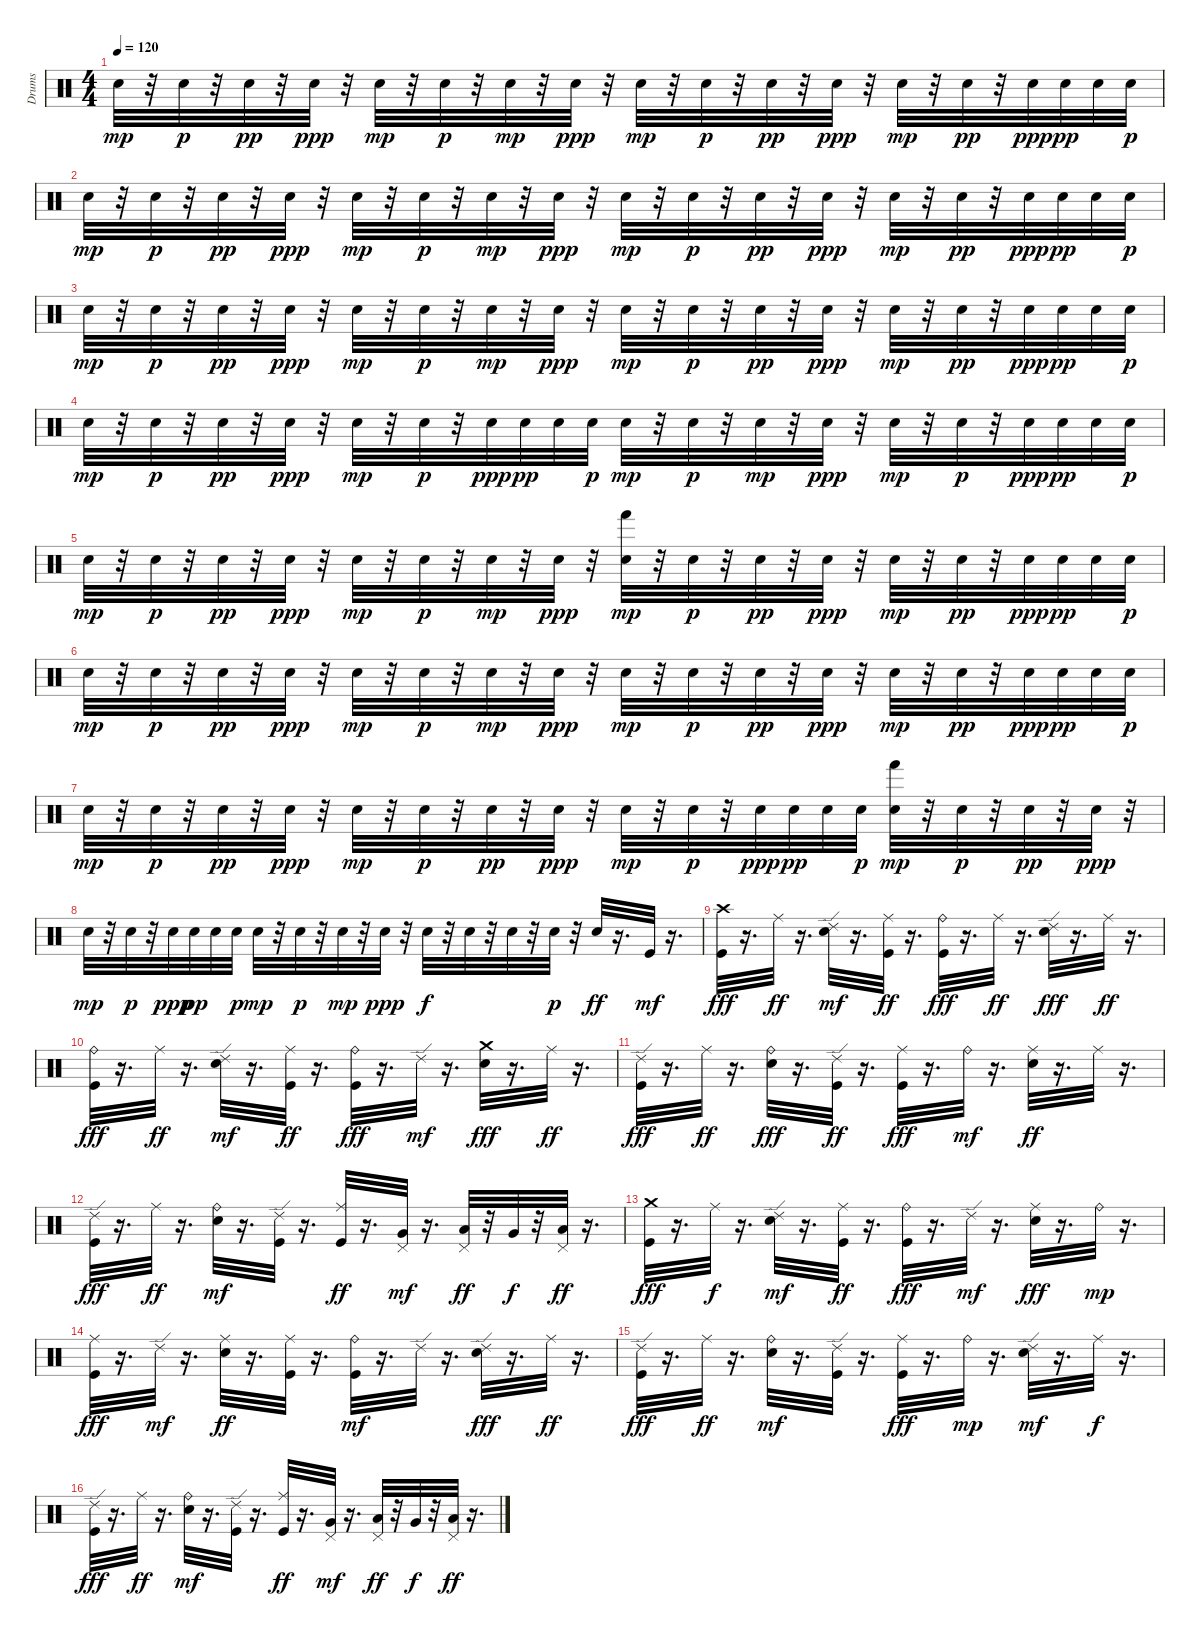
\track ("Drums" "Drums") {instrument percussion}
\staff {score}
\articulation defaults
\ts (4 4)
\tempo 120
\clef neutral
\ks c "Snare (hit) 2".32{dy mp}
r.32 "Electric Snare (hit)".32{dy p} r.32 "Snare (hit) 2".32{dy pp} r.32 "Electric Snare (hit)".32{dy ppp} r.32 "Snare (hit) 2".32{dy mp} r.32 "Electric Snare (hit)".32{dy p} r.32 "Snare (hit) 2".32{dy mp} r.32 "Electric Snare (hit)".32{dy ppp} r.32 "Snare (hit) 2".32{dy mp} r.32 "Electric Snare (hit)".32{dy p} r.32 "Snare (hit) 2".32{dy pp} r.32 "Electric Snare (hit)".32{dy ppp} r.32 "Snare (hit) 2".32{dy mp} r.32 "Electric Snare (hit)".32{dy pp} r.32 "Electric Snare (hit)".32{dy ppp} "Electric Snare (hit)".32{dy pp} "Electric Snare (hit)".32 "Electric Snare (hit)".32{dy p} |
"Snare (hit) 2".32{dy mp} r.32 "Electric Snare (hit)".32{dy p} r.32 "Snare (hit) 2".32{dy pp} r.32 "Electric Snare (hit)".32{dy ppp} r.32 "Snare (hit) 2".32{dy mp} r.32 "Electric Snare (hit)".32{dy p} r.32 "Snare (hit) 2".32{dy mp} r.32 "Electric Snare (hit)".32{dy ppp} r.32 "Snare (hit) 2".32{dy mp} r.32 "Electric Snare (hit)".32{dy p} r.32 "Snare (hit) 2".32{dy pp} r.32 "Electric Snare (hit)".32{dy ppp} r.32 "Snare (hit) 2".32{dy mp} r.32 "Electric Snare (hit)".32{dy pp} r.32 "Electric Snare (hit)".32{dy ppp} "Electric Snare (hit)".32{dy pp} "Electric Snare (hit)".32 "Electric Snare (hit)".32{dy p} |
"Snare (hit) 2".32{dy mp} r.32 "Electric Snare (hit)".32{dy p} r.32 "Snare (hit) 2".32{dy pp} r.32 "Electric Snare (hit)".32{dy ppp} r.32 "Snare (hit) 2".32{dy mp} r.32 "Electric Snare (hit)".32{dy p} r.32 "Snare (hit) 2".32{dy mp} r.32 "Electric Snare (hit)".32{dy ppp} r.32 "Snare (hit) 2".32{dy mp} r.32 "Electric Snare (hit)".32{dy p} r.32 "Snare (hit) 2".32{dy pp} r.32 "Electric Snare (hit)".32{dy ppp} r.32 "Snare (hit) 2".32{dy mp} r.32 "Electric Snare (hit)".32{dy pp} r.32 "Electric Snare (hit)".32{dy ppp} "Electric Snare (hit)".32{dy pp} "Electric Snare (hit)".32 "Electric Snare (hit)".32{dy p} |
"Snare (hit) 2".32{dy mp} r.32 "Electric Snare (hit)".32{dy p} r.32 "Snare (hit) 2".32{dy pp} r.32 "Electric Snare (hit)".32{dy ppp} r.32 "Snare (hit) 2".32{dy mp} r.32 "Electric Snare (hit)".32{dy p} r.32 "Electric Snare (hit)".32{dy ppp} "Electric Snare (hit)".32{dy pp} "Electric Snare (hit)".32 "Electric Snare (hit)".32{dy p} "Snare (hit) 2".32{dy mp} r.32 "Electric Snare (hit)".32{dy p} r.32 "Snare (hit) 2".32{dy mp} r.32 "Electric Snare (hit)".32{dy ppp} r.32 "Snare (hit) 2".32{dy mp} r.32 "Electric Snare (hit)".32{dy p} r.32 "Electric Snare (hit)".32{dy ppp} "Electric Snare (hit)".32{dy pp} "Electric Snare (hit)".32 "Electric Snare (hit)".32{dy p} |
"Snare (hit) 2".32{dy mp} r.32 "Electric Snare (hit)".32{dy p} r.32 "Snare (hit) 2".32{dy pp} r.32 "Electric Snare (hit)".32{dy ppp} r.32 "Snare (hit) 2".32{dy mp} r.32 "Electric Snare (hit)".32{dy p} r.32 "Snare (hit) 2".32{dy mp} r.32 "Electric Snare (hit)".32{dy ppp} r.32 ("Snare (hit) 2" "Hand (hit)").32{dy mp} r.32 "Electric Snare (hit)".32{dy p} r.32 "Snare (hit) 2".32{dy pp} r.32 "Electric Snare (hit)".32{dy ppp} r.32 "Snare (hit) 2".32{dy mp} r.32 "Electric Snare (hit)".32{dy pp} r.32 "Electric Snare (hit)".32{dy ppp} "Electric Snare (hit)".32{dy pp} "Electric Snare (hit)".32 "Electric Snare (hit)".32{dy p} |
"Snare (hit) 2".32{dy mp} r.32 "Electric Snare (hit)".32{dy p} r.32 "Snare (hit) 2".32{dy pp} r.32 "Electric Snare (hit)".32{dy ppp} r.32 "Snare (hit) 2".32{dy mp} r.32 "Electric Snare (hit)".32{dy p} r.32 "Snare (hit) 2".32{dy mp} r.32 "Electric Snare (hit)".32{dy ppp} r.32 "Snare (hit) 2".32{dy mp} r.32 "Electric Snare (hit)".32{dy p} r.32 "Snare (hit) 2".32{dy pp} r.32 "Electric Snare (hit)".32{dy ppp} r.32 "Snare (hit) 2".32{dy mp} r.32 "Electric Snare (hit)".32{dy pp} r.32 "Electric Snare (hit)".32{dy ppp} "Electric Snare (hit)".32{dy pp} "Electric Snare (hit)".32 "Electric Snare (hit)".32{dy p} |
"Snare (hit) 2".32{dy mp} r.32 "Electric Snare (hit)".32{dy p} r.32 "Snare (hit) 2".32{dy pp} r.32 "Electric Snare (hit)".32{dy ppp} r.32 "Snare (hit) 2".32{dy mp} r.32 "Electric Snare (hit)".32{dy p} r.32 "Snare (hit) 2".32{dy pp} r.32 "Electric Snare (hit)".32{dy ppp} r.32 "Snare (hit) 2".32{dy mp} r.32 "Electric Snare (hit)".32{dy p} r.32 "Electric Snare (hit)".32{dy ppp} "Electric Snare (hit)".32{dy pp} "Electric Snare (hit)".32 "Electric Snare (hit)".32{dy p} ("Hand (hit)" "Snare (hit) 2").32{dy mp} r.32 "Electric Snare (hit)".32{dy p} r.32 "Snare (hit) 2".32{dy pp} r.32 "Electric Snare (hit)".32{dy ppp} r.32 |
"Snare (hit) 2".32{dy mp} r.32 "Electric Snare (hit)".32{dy p} r.32 "Electric Snare (hit)".32{dy ppp} "Electric Snare (hit)".32{dy pp} "Electric Snare (hit)".32 "Electric Snare (hit)".32{dy p} "Snare (hit) 2".32{dy mp} r.32 "Electric Snare (hit)".32{dy p} r.32 "Snare (hit) 2".32{dy mp} r.32 "Electric Snare (hit)".32{dy ppp} r.32 "Electric Snare (hit)".32{dy f} r.32 "Electric Snare (hit)".32 r.32 "Electric Snare (hit)".32 r.32 "Electric Snare (hit)".32{dy p} r.32 "Electric Snare (hit)".32{dy ff} r.16{d} "Kick (hit)".32{dy mf} r.16{d} |
("Crash high (hit)" "Kick (hit)").32{dy fff} r.16{d} "Ride (middle)".32{dy ff} r.16{d} ("Electric Snare (hit)" "Ride (edge) 2").32{dy mf} r.16{d} ("Kick (hit)" "Ride (middle)").32{dy ff} r.16{d} ("Ride (bell)" "Kick (hit)").32{dy fff} r.16{d} "Ride (middle)".32{dy ff} r.16{d} ("Ride (edge) 2" "Electric Snare (hit)").32{dy fff} r.16{d} "Ride (middle)".32{dy ff} r.16{d} |
("Ride (bell)" "Kick (hit)").32{dy fff} r.16{d} "Ride (middle)".32{dy ff} r.16{d} ("Electric Snare (hit)" "Ride (edge) 2").32{dy mf} r.16{d} ("Kick (hit)" "Ride (middle)").32{dy ff} r.16{d} ("Ride (bell)" "Kick (hit)").32{dy fff} r.16{d} "Ride (edge) 2".32{dy mf} r.16{d} ("Crash medium (hit)" "Electric Snare (hit)").32{dy fff} r.16{d} "Ride (middle)".32{dy ff} r.16{d} |
("Ride (edge) 2" "Kick (hit)").32{dy fff} r.16{d} "Ride (middle)".32{dy ff} r.16{d} ("Ride (bell)" "Electric Snare (hit)").32{dy fff} r.16{d} ("Ride (edge) 2" "Kick (hit)").32{dy ff} r.16{d} ("Ride (middle)" "Kick (hit)").32{dy fff} r.16{d} "Ride (bell)".32{dy mf} r.16{d} ("Electric Snare (hit)" "Ride (middle)").32{dy ff} r.16{d} "Ride (middle)".32 r.16{d} |
("Kick (hit)" "Ride (edge) 2").32{dy fff} r.16{d} "Ride (middle)".32{dy ff} r.16{d} ("Electric Snare (hit)" "Ride (bell)").32{dy mf} r.16{d} ("Kick (hit)" "Ride (edge) 2").32 r.16{d} ("Kick (hit)" "Ride (middle)").32{dy ff} r.16{d} ("Very Low Tom (hit)" "Pedal Hi-Hat (hit)").32{dy mf} r.16{d} ("Pedal Hi-Hat (hit)" "Low Tom (hit)").32{dy ff} r.32 "Very Low Tom (hit)".32{dy f} r.32 ("Pedal Hi-Hat (hit)" "Low Floor Tom (hit)").32{dy ff} r.16{d} |
("Crash medium (hit)" "Kick (hit)").32{dy fff} r.16{d} "Ride (middle)".32{dy f} r.16{d} ("Electric Snare (hit)" "Ride (edge) 2").32{dy mf} r.16{d} ("Ride (middle)" "Kick (hit)").32{dy ff} r.16{d} ("Ride (bell)" "Kick (hit)").32{dy fff} r.16{d} "Ride (edge) 2".32{dy mf} r.16{d} ("Ride (middle)" "Electric Snare (hit)").32{dy fff} r.16{d} "Ride (bell)".32{dy mp} r.16{d} |
("Ride (middle)" "Kick (hit)").32{dy fff} r.16{d} "Ride (edge) 2".32{dy mf} r.16{d} ("Electric Snare (hit)" "Ride (middle)").32{dy ff} r.16{d} ("Kick (hit)" "Ride (middle)").32 r.16{d} ("Kick (hit)" "Ride (bell)").32{dy mf} r.16{d} "Ride (edge) 2".32 r.16{d} ("Ride (edge) 2" "Electric Snare (hit)").32{dy fff} r.16{d} "Ride (middle)".32{dy ff} r.16{d} |
("Ride (edge) 2" "Kick (hit)").32{dy fff} r.16{d} "Ride (middle)".32{dy ff} r.16{d} ("Electric Snare (hit)" "Ride (bell)").32{dy mf} r.16{d} ("Kick (hit)" "Ride (edge) 2").32 r.16{d} ("Kick (hit)" "Ride (middle)").32{dy fff} r.16{d} "Ride (bell)".32{dy mp} r.16{d} ("Electric Snare (hit)" "Ride (edge) 2").32{dy mf} r.16{d} "Ride (middle)".32{dy f} r.16{d} |
("Kick (hit)" "Ride (edge) 2").32{dy fff} r.16{d} "Ride (middle)".32{dy ff} r.16{d} ("Electric Snare (hit)" "Ride (bell)").32{dy mf} r.16{d} ("Kick (hit)" "Ride (edge) 2").32 r.16{d} ("Kick (hit)" "Ride (middle)").32{dy ff} r.16{d} ("Very Low Tom (hit)" "Pedal Hi-Hat (hit)").32{dy mf} r.16{d} ("Pedal Hi-Hat (hit)" "Low Tom (hit)").32{dy ff} r.32 "Very Low Tom (hit)".32{dy f} r.32 ("Pedal Hi-Hat (hit)" "Low Floor Tom (hit)").32{dy ff} r.16{d}
